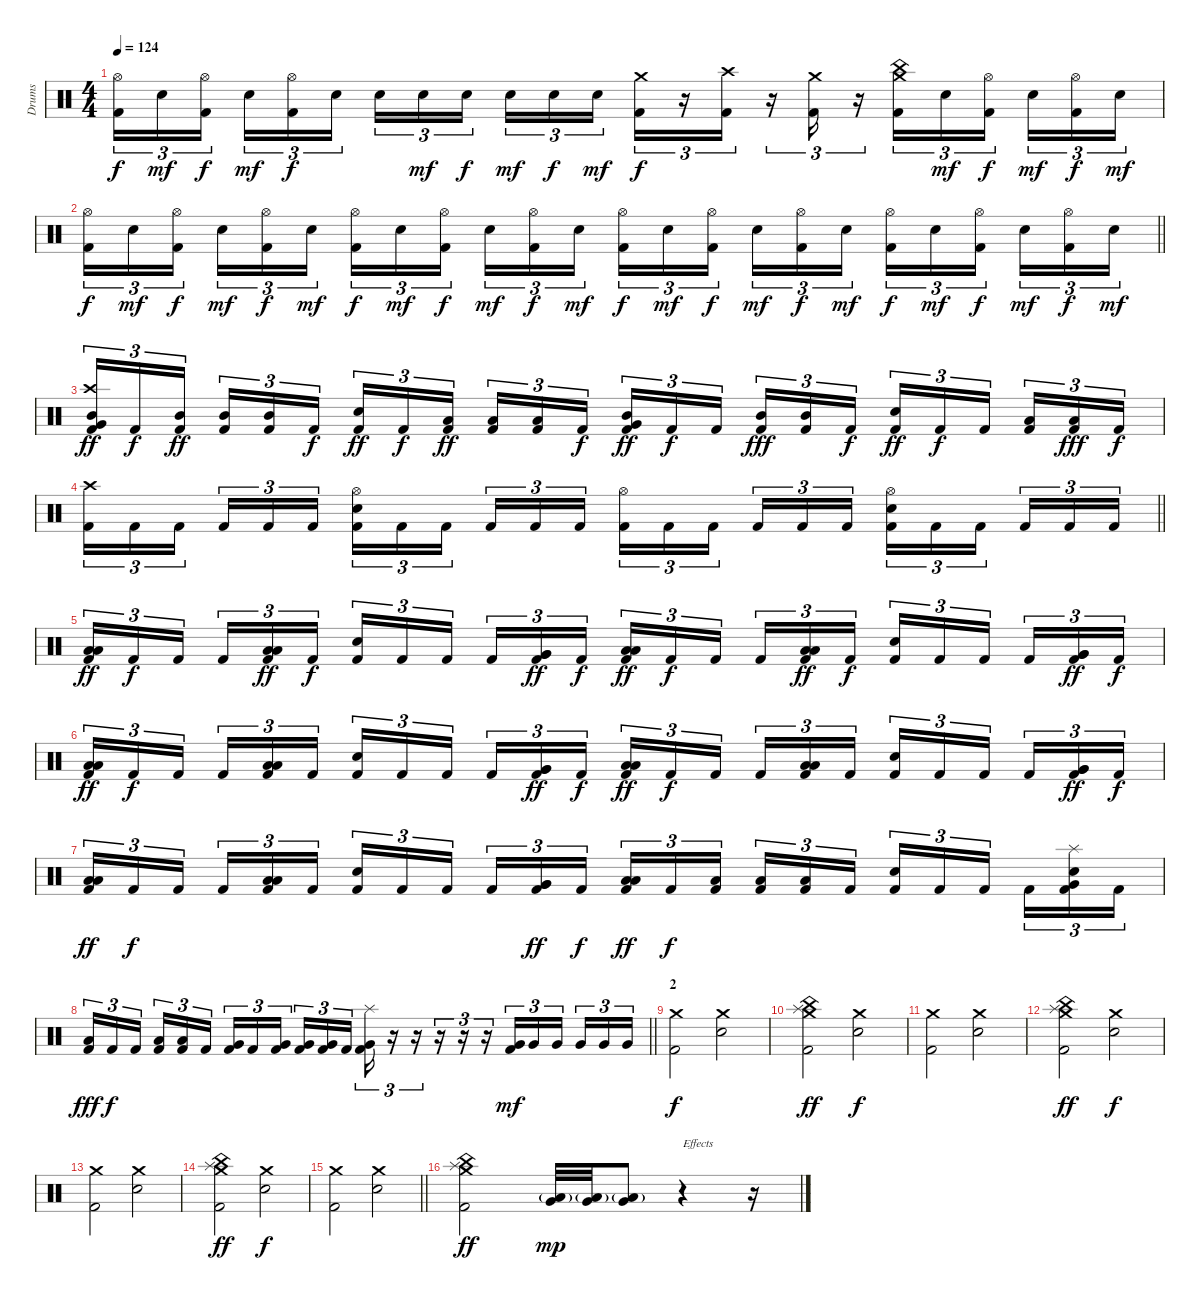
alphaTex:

\track ("Drums" "Drums") {instrument percussion}
\staff {score}
\articulation defaults
\ts (4 4)
\tempo 124
\clef neutral
\ks c
("Hi-Hat (open)" "Kick (hit) 2").16{tu (3 2) dy f} "Electric Snare (hit)".16{tu (3 2) dy mf} ("Hi-Hat (open)" "Kick (hit) 2").16{tu (3 2) dy f} "Electric Snare (hit)".16{tu (3 2) dy mf} ("Hi-Hat (open)" "Kick (hit) 2").16{tu (3 2) dy f} "Electric Snare (hit)".16{tu (3 2)} "Electric Snare (hit)".16{tu (3 2)} "Electric Snare (hit)".16{tu (3 2) dy mf} "Electric Snare (hit)".16{tu (3 2) dy f} "Electric Snare (hit)".16{tu (3 2) dy mf} "Electric Snare (hit)".16{tu (3 2) dy f} "Electric Snare (hit)".16{tu (3 2) dy mf} ("Crash medium (hit)" "Kick (hit) 2").16{tu (3 2) dy f} r.16{tu (3 2)} ("Crash high (hit)" "Kick (hit) 2").16{tu (3 2)} r.16{tu (3 2)} ("Crash medium (hit)" "Kick (hit) 2").16{tu (3 2)} r.16{tu (3 2)} ("China (hit)" "Crash medium (hit)" "Kick (hit) 2").16{tu (3 2)} "Electric Snare (hit)".16{tu (3 2) dy mf} ("Hi-Hat (open)" "Kick (hit) 2").16{tu (3 2) dy f} "Electric Snare (hit)".16{tu (3 2) dy mf} ("Hi-Hat (open)" "Kick (hit) 2").16{tu (3 2) dy f} "Electric Snare (hit)".16{tu (3 2) dy mf} |
\barLineRight lightlight
("Hi-Hat (open)" "Kick (hit) 2").16{tu (3 2) dy f} "Electric Snare (hit)".16{tu (3 2) dy mf} ("Hi-Hat (open)" "Kick (hit) 2").16{tu (3 2) dy f} "Electric Snare (hit)".16{tu (3 2) dy mf} ("Hi-Hat (open)" "Kick (hit) 2").16{tu (3 2) dy f} "Electric Snare (hit)".16{tu (3 2) dy mf} ("Hi-Hat (open)" "Kick (hit) 2").16{tu (3 2) dy f} "Electric Snare (hit)".16{tu (3 2) dy mf} ("Hi-Hat (open)" "Kick (hit) 2").16{tu (3 2) dy f} "Electric Snare (hit)".16{tu (3 2) dy mf} ("Hi-Hat (open)" "Kick (hit) 2").16{tu (3 2) dy f} "Electric Snare (hit)".16{tu (3 2) dy mf} ("Hi-Hat (open)" "Kick (hit) 2").16{tu (3 2) dy f} "Electric Snare (hit)".16{tu (3 2) dy mf} ("Hi-Hat (open)" "Kick (hit) 2").16{tu (3 2) dy f} "Electric Snare (hit)".16{tu (3 2) dy mf} ("Hi-Hat (open)" "Kick (hit) 2").16{tu (3 2) dy f} "Electric Snare (hit)".16{tu (3 2) dy mf} ("Hi-Hat (open)" "Kick (hit) 2").16{tu (3 2) dy f} "Electric Snare (hit)".16{tu (3 2) dy mf} ("Hi-Hat (open)" "Kick (hit) 2").16{tu (3 2) dy f} "Electric Snare (hit)".16{tu (3 2) dy mf} ("Hi-Hat (open)" "Kick (hit) 2").16{tu (3 2) dy f} "Electric Snare (hit)".16{tu (3 2) dy mf} |
("Crash high (hit)" "Mid Tom (hit)" "Very Low Tom (hit)" "Kick (hit) 2").16{tu (3 2) dy ff} "Kick (hit) 2".16{tu (3 2) dy f} ("Mid Tom (hit)" "Kick (hit) 2").16{tu (3 2) dy ff} ("Mid Tom (hit)" "Kick (hit) 2").16{tu (3 2)} ("Mid Tom (hit)" "Kick (hit) 2").16{tu (3 2)} "Kick (hit) 2".16{tu (3 2) dy f} ("Electric Snare (hit)" "Kick (hit) 2").16{tu (3 2) dy ff} "Kick (hit) 2".16{tu (3 2) dy f} ("Low Tom (hit)" "Kick (hit) 2").16{tu (3 2) dy ff} ("Low Tom (hit)" "Kick (hit) 2").16{tu (3 2)} ("Low Tom (hit)" "Kick (hit) 2").16{tu (3 2)} "Kick (hit) 2".16{tu (3 2) dy f} ("Mid Tom (hit)" "Very Low Tom (hit)" "Kick (hit) 2").16{tu (3 2) dy ff} "Kick (hit) 2".16{tu (3 2) dy f} "Kick (hit) 2".16{tu (3 2)} ("Mid Tom (hit)" "Kick (hit) 2").16{tu (3 2) dy fff} ("Mid Tom (hit)" "Kick (hit) 2").16{tu (3 2)} "Kick (hit) 2".16{tu (3 2) dy f} ("Electric Snare (hit)" "Kick (hit) 2").16{tu (3 2) dy ff} "Kick (hit) 2".16{tu (3 2) dy f} "Kick (hit) 2".16{tu (3 2)} ("Low Tom (hit)" "Kick (hit) 2").16{tu (3 2)} ("Low Tom (hit)" "Kick (hit) 2").16{tu (3 2) dy fff} "Kick (hit) 2".16{tu (3 2) dy f} |
\barLineRight lightlight
("Crash high (hit)" "Kick (hit) 2").16{tu (3 2)} "Kick (hit) 2".16{tu (3 2)} "Kick (hit) 2".16{tu (3 2)} "Kick (hit) 2".16{tu (3 2)} "Kick (hit) 2".16{tu (3 2)} "Kick (hit) 2".16{tu (3 2)} ("Hi-Hat (open)" "Electric Snare (hit)" "Kick (hit) 2").16{tu (3 2)} "Kick (hit) 2".16{tu (3 2)} "Kick (hit) 2".16{tu (3 2)} "Kick (hit) 2".16{tu (3 2)} "Kick (hit) 2".16{tu (3 2)} "Kick (hit) 2".16{tu (3 2)} ("Hi-Hat (open)" "Kick (hit) 2").16{tu (3 2)} "Kick (hit) 2".16{tu (3 2)} "Kick (hit) 2".16{tu (3 2)} "Kick (hit) 2".16{tu (3 2)} "Kick (hit) 2".16{tu (3 2)} "Kick (hit) 2".16{tu (3 2)} ("Hi-Hat (open)" "Electric Snare (hit)" "Kick (hit) 2").16{tu (3 2)} "Kick (hit) 2".16{tu (3 2)} "Kick (hit) 2".16{tu (3 2)} "Kick (hit) 2".16{tu (3 2)} "Kick (hit) 2".16{tu (3 2)} "Kick (hit) 2".16{tu (3 2)} |
("Low Tom (hit)" "Low Tom (hit)" "Kick (hit) 2").16{tu (3 2) dy ff} "Kick (hit) 2".16{tu (3 2) dy f} "Kick (hit) 2".16{tu (3 2)} "Kick (hit) 2".16{tu (3 2)} ("Low Tom (hit)" "Low Tom (hit)" "Kick (hit) 2").16{tu (3 2) dy ff} "Kick (hit) 2".16{tu (3 2) dy f} ("Electric Snare (hit)" "Kick (hit) 2").16{tu (3 2)} "Kick (hit) 2".16{tu (3 2)} "Kick (hit) 2".16{tu (3 2)} "Kick (hit) 2".16{tu (3 2)} ("Very Low Tom (hit)" "Very Low Tom (hit)" "Kick (hit) 2").16{tu (3 2) dy ff} "Kick (hit) 2".16{tu (3 2) dy f} ("Low Tom (hit)" "Low Tom (hit)" "Kick (hit) 2").16{tu (3 2) dy ff} "Kick (hit) 2".16{tu (3 2) dy f} "Kick (hit) 2".16{tu (3 2)} "Kick (hit) 2".16{tu (3 2)} ("Low Tom (hit)" "Low Tom (hit)" "Kick (hit) 2").16{tu (3 2) dy ff} "Kick (hit) 2".16{tu (3 2) dy f} ("Electric Snare (hit)" "Kick (hit) 2").16{tu (3 2)} "Kick (hit) 2".16{tu (3 2)} "Kick (hit) 2".16{tu (3 2)} "Kick (hit) 2".16{tu (3 2)} ("Very Low Tom (hit)" "Very Low Tom (hit)" "Kick (hit) 2").16{tu (3 2) dy ff} "Kick (hit) 2".16{tu (3 2) dy f} |
("Low Tom (hit)" "Low Tom (hit)" "Kick (hit) 2").16{tu (3 2) dy ff} "Kick (hit) 2".16{tu (3 2) dy f} "Kick (hit) 2".16{tu (3 2)} "Kick (hit) 2".16{tu (3 2)} ("Low Tom (hit)" "Low Tom (hit)" "Kick (hit) 2").16{tu (3 2)} "Kick (hit) 2".16{tu (3 2)} ("Electric Snare (hit)" "Kick (hit) 2").16{tu (3 2)} "Kick (hit) 2".16{tu (3 2)} "Kick (hit) 2".16{tu (3 2)} "Kick (hit) 2".16{tu (3 2)} ("Very Low Tom (hit)" "Very Low Tom (hit)" "Kick (hit) 2").16{tu (3 2) dy ff} "Kick (hit) 2".16{tu (3 2) dy f} ("Low Tom (hit)" "Low Tom (hit)" "Kick (hit) 2").16{tu (3 2) dy ff} "Kick (hit) 2".16{tu (3 2) dy f} "Kick (hit) 2".16{tu (3 2)} "Kick (hit) 2".16{tu (3 2)} ("Low Tom (hit)" "Low Tom (hit)" "Kick (hit) 2").16{tu (3 2)} "Kick (hit) 2".16{tu (3 2)} ("Electric Snare (hit)" "Kick (hit) 2").16{tu (3 2)} "Kick (hit) 2".16{tu (3 2)} "Kick (hit) 2".16{tu (3 2)} "Kick (hit) 2".16{tu (3 2)} ("Very Low Tom (hit)" "Very Low Tom (hit)" "Kick (hit) 2").16{tu (3 2) dy ff} "Kick (hit) 2".16{tu (3 2) dy f} |
("Low Tom (hit)" "Low Tom (hit)" "Kick (hit) 2").16{tu (3 2) dy ff} "Kick (hit) 2".16{tu (3 2) dy f} "Kick (hit) 2".16{tu (3 2)} "Kick (hit) 2".16{tu (3 2)} ("Low Tom (hit)" "Low Tom (hit)" "Kick (hit) 2").16{tu (3 2)} "Kick (hit) 2".16{tu (3 2)} ("Electric Snare (hit)" "Kick (hit) 2").16{tu (3 2)} "Kick (hit) 2".16{tu (3 2)} "Kick (hit) 2".16{tu (3 2)} "Kick (hit) 2".16{tu (3 2)} ("Very Low Tom (hit)" "Very Low Tom (hit)" "Kick (hit) 2").16{tu (3 2) dy ff} "Kick (hit) 2".16{tu (3 2) dy f} ("Low Tom (hit)" "Low Tom (hit)" "Kick (hit) 2").16{tu (3 2) dy ff} "Kick (hit) 2".16{tu (3 2) dy f} ("Low Tom (hit)" "Kick (hit) 2").16{tu (3 2)} ("Low Tom (hit)" "Kick (hit) 2").16{tu (3 2)} ("Low Tom (hit)" "Kick (hit) 2").16{tu (3 2)} "Kick (hit) 2".16{tu (3 2)} ("Electric Snare (hit)" "Kick (hit) 2").16{tu (3 2)} "Kick (hit) 2".16{tu (3 2)} "Kick (hit) 2".16{tu (3 2)} "Kick (hit) 2".16{tu (3 2)} ("Splash (hit)" "Electric Snare (hit)" "Very Low Tom (hit)" "Kick (hit) 2").16{tu (3 2)} "Kick (hit) 2".16{tu (3 2)} |
\barLineRight lightlight
("Low Tom (hit)" "Kick (hit) 2").16{tu (3 2) dy fff} "Kick (hit) 2".16{tu (3 2) dy f} "Kick (hit) 2".16{tu (3 2)} ("Low Tom (hit)" "Kick (hit) 2").16{tu (3 2)} ("Low Tom (hit)" "Kick (hit) 2").16{tu (3 2)} "Kick (hit) 2".16{tu (3 2)} ("Very Low Tom (hit)" "Kick (hit) 2").16{tu (3 2)} "Kick (hit) 2".16{tu (3 2)} ("Very Low Tom (hit)" "Kick (hit) 2").16{tu (3 2)} ("Very Low Tom (hit)" "Kick (hit) 2").16{tu (3 2)} ("Very Low Tom (hit)" "Kick (hit) 2").16{tu (3 2)} "Kick (hit) 2".16{tu (3 2)} ("Splash (hit)" "Very Low Tom (hit)" "Kick (hit) 2").16{tu (3 2)} r.16{tu (3 2)} r.16{tu (3 2)} r.16{tu (3 2)} r.16{tu (3 2)} r.16{tu (3 2)} ("Very Low Tom (hit)" "Kick (hit) 2").16{tu (3 2) dy mf} "Very Low Tom (hit)".16{tu (3 2)} "Very Low Tom (hit)".16{tu (3 2)} "Very Low Tom (hit)".16{tu (3 2)} "Very Low Tom (hit)".16{tu (3 2)} "Very Low Tom (hit)".16{tu (3 2)} |
\section ("" "2")
("Crash medium (hit)" "Kick (hit) 2").2{dy f} ("Crash medium (hit)" "Electric Snare (hit)").2 |
("Crash medium (hit)" "Splash (hit)" "China (hit)" "Kick (hit) 2").2{dy ff} ("Crash medium (hit)" "Electric Snare (hit)").2{dy f} |
("Crash medium (hit)" "Kick (hit) 2").2 ("Crash medium (hit)" "Electric Snare (hit)").2 |
("Crash medium (hit)" "Splash (hit)" "China (hit)" "Kick (hit) 2").2{dy ff} ("Crash medium (hit)" "Electric Snare (hit)").2{dy f} |
("Crash medium (hit)" "Kick (hit) 2").2 ("Crash medium (hit)" "Electric Snare (hit)").2 |
("Crash medium (hit)" "Splash (hit)" "China (hit)" "Kick (hit) 2").2{dy ff} ("Crash medium (hit)" "Electric Snare (hit)").2{dy f} |
\barLineRight lightlight
("Crash medium (hit)" "Kick (hit) 2").2 ("Crash medium (hit)" "Electric Snare (hit)").2 |
("Crash medium (hit)" "Splash (hit)" "China (hit)" "Kick (hit) 2").2{dy ff} ("Low Floor Tom (hit)"{g} "Very Low Tom (hit)").32{dy mp} ("Low Floor Tom (hit)"{g} "Very Low Tom (hit)").32 ("Low Floor Tom (hit)"{g} "Very Low Tom (hit)").8 r.4{txt "Effects"} r.16
